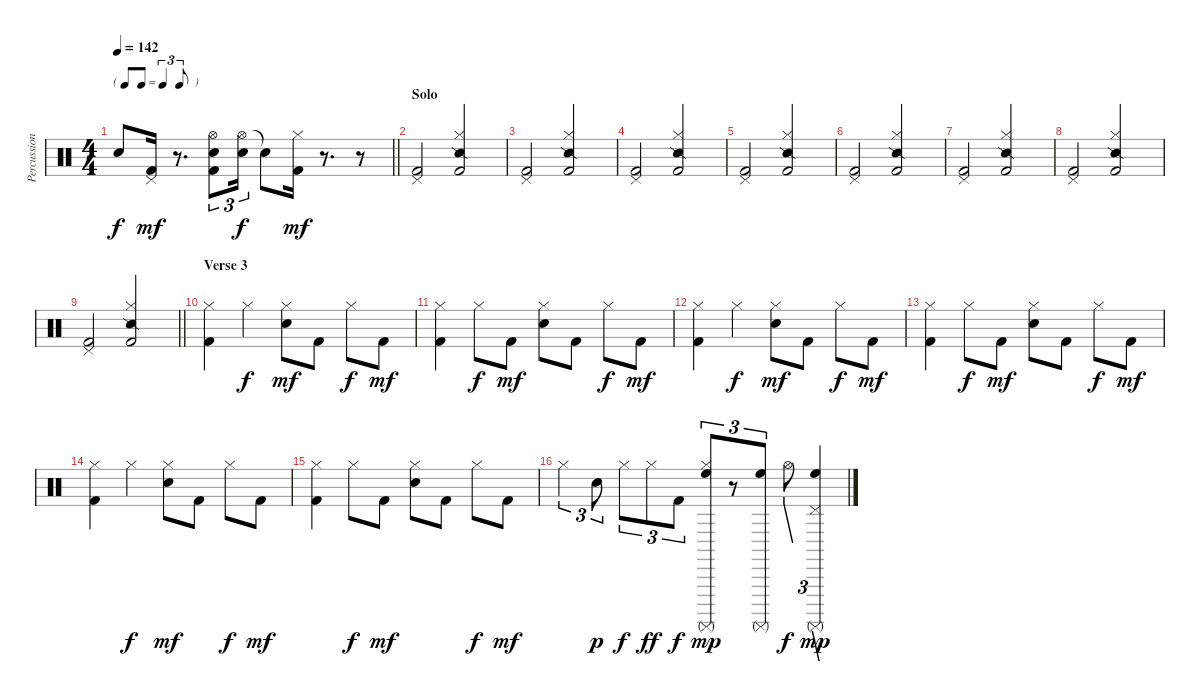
\track ("Percussion" "Percussion") {instrument percussion}
\staff {score}
\articulation defaults
\ts (4 4)
\tf triplet8th
\tempo 142
\clef neutral
\barLineRight lightlight
\ks c "Snare (hit)"{t}.8{dy f}
("Pedal Hi-Hat (hit)" "Kick (hit) 2").16{dy mf} r.8{d} ("Hi-Hat (open)" "Electric Snare (hit)" "Kick (hit) 2").8{tu (3 2)} ("Hi-Hat (open)" "Electric Snare (hit)").16{tu (3 2) dy f} "Snare (hit)"{t}.8 ("Hi-Hat (closed)" "Kick (hit) 2").16{dy mf} r.8{d} r.8 |
\section ("" "Solo")
("Pedal Hi-Hat (hit)" "Kick (hit) 2").2 ("Hi-Hat (closed)" "Snare (side stick) 2" "Kick (hit) 2").2 |
("Pedal Hi-Hat (hit)" "Kick (hit) 2").2 ("Hi-Hat (closed)" "Snare (side stick) 2" "Kick (hit) 2").2 |
("Pedal Hi-Hat (hit)" "Kick (hit) 2").2 ("Hi-Hat (closed)" "Snare (side stick) 2" "Kick (hit) 2").2 |
("Pedal Hi-Hat (hit)" "Kick (hit) 2").2 ("Hi-Hat (closed)" "Snare (side stick) 2" "Kick (hit) 2").2 |
("Pedal Hi-Hat (hit)" "Kick (hit) 2").2 ("Hi-Hat (closed)" "Snare (side stick) 2" "Kick (hit) 2").2 |
("Pedal Hi-Hat (hit)" "Kick (hit) 2").2 ("Hi-Hat (closed)" "Snare (side stick) 2" "Kick (hit) 2").2 |
("Pedal Hi-Hat (hit)" "Kick (hit) 2").2 ("Hi-Hat (closed)" "Snare (side stick) 2" "Kick (hit) 2").2 |
\barLineRight lightlight
("Pedal Hi-Hat (hit)" "Kick (hit) 2").2 ("Hi-Hat (closed)" "Snare (side stick) 2" "Kick (hit) 2").2 |
\section ("" "Verse 3")
("Hi-Hat (closed)" "Kick (hit) 2").4 "Hi-Hat (closed)".4{dy f} ("Hi-Hat (closed)" "Electric Snare (hit)").8{dy mf} "Kick (hit) 2".8 "Hi-Hat (closed)".8{dy f} "Kick (hit) 2".8{dy mf} |
("Hi-Hat (closed)" "Kick (hit) 2").4 "Hi-Hat (closed)".8{dy f} "Kick (hit) 2".8{dy mf} ("Hi-Hat (closed)" "Electric Snare (hit)").8 "Kick (hit) 2".8 "Hi-Hat (closed)".8{dy f} "Kick (hit) 2".8{dy mf} |
("Hi-Hat (closed)" "Kick (hit) 2").4 "Hi-Hat (closed)".4{dy f} ("Hi-Hat (closed)" "Electric Snare (hit)").8{dy mf} "Kick (hit) 2".8 "Hi-Hat (closed)".8{dy f} "Kick (hit) 2".8{dy mf} |
("Hi-Hat (closed)" "Kick (hit) 2").4 "Hi-Hat (closed)".8{dy f} "Kick (hit) 2".8{dy mf} ("Hi-Hat (closed)" "Electric Snare (hit)").8 "Kick (hit) 2".8 "Hi-Hat (closed)".8{dy f} "Kick (hit) 2".8{dy mf} |
("Hi-Hat (closed)" "Kick (hit) 2").4 "Hi-Hat (closed)".4{dy f} ("Hi-Hat (closed)" "Electric Snare (hit)").8{dy mf} "Kick (hit) 2".8 "Hi-Hat (closed)".8{dy f} "Kick (hit) 2".8{dy mf} |
("Hi-Hat (closed)" "Kick (hit) 2").4 "Hi-Hat (closed)".8{dy f} "Kick (hit) 2".8{dy mf} ("Hi-Hat (closed)" "Electric Snare (hit)").8 "Kick (hit) 2".8 "Hi-Hat (closed)".8{dy f} "Kick (hit) 2".8{dy mf} |
"Hi-Hat (closed)".4{tu (3 2)} "Electric Snare (hit)".8{tu (3 2) dy p} "Hi-Hat (closed)".8{tu (3 2) dy f} "Hi-Hat (closed)".8{tu (3 2) dy ff} "Kick (hit) 2".8{tu (3 2) dy f} ("Hi-Hat (closed)" "High Floor Tom (hit)" "Surdo (mute)").8{tu (3 2) dy mp} r.8{tu (3 2)} ("High Floor Tom (hit)" "Surdo (mute)").8{tu (3 2)} "Hi-Hat (open)".8{tu (3 2) dy f} ("Pedal Hi-Hat (hit)" "High Floor Tom (hit)" "Surdo (mute)").4{tu (3 2) dy mp}
